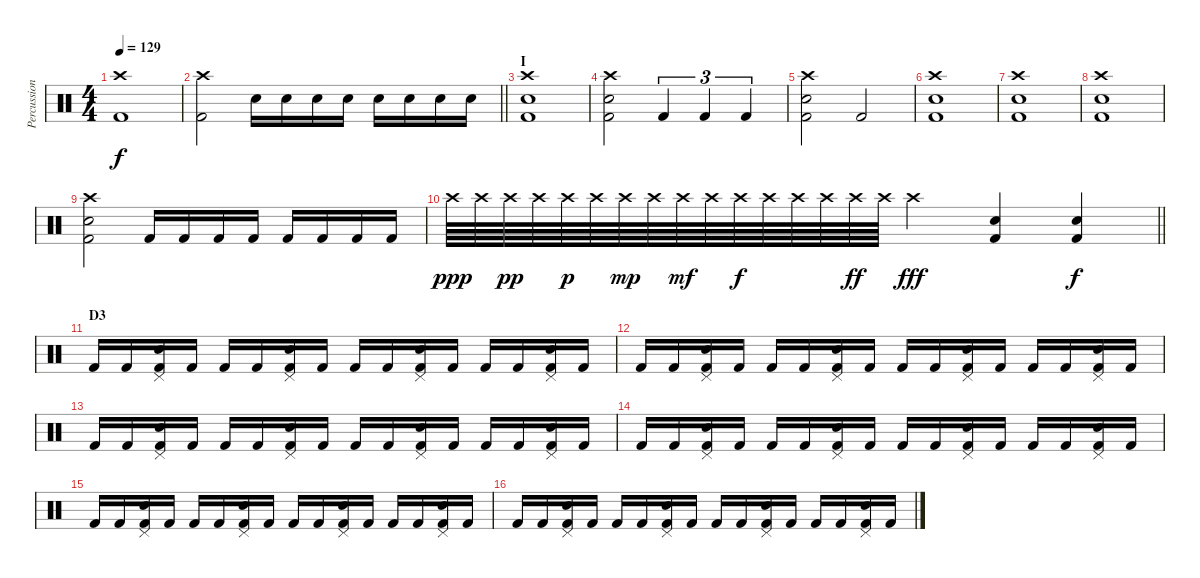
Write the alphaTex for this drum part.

\track ("Percussion" "Percussion") {instrument percussion}
\staff {score}
\articulation defaults
\ts (4 4)
\tempo 129
\clef neutral
\ks c
("Crash high (hit)" "Kick (hit) 2").1{dy f} |
\barLineRight lightlight
("Crash high (hit)" "Kick (hit) 2").2 "Snare (hit) 2".16 "Snare (hit) 2".16 "Snare (hit) 2".16 "Snare (hit) 2".16 "Snare (hit) 2".16 "Snare (hit) 2".16 "Snare (hit) 2".16 "Snare (hit) 2".16 |
\section ("" "I")
("Crash high (hit)" "Snare (hit) 2" "Kick (hit) 2").1 |
("Crash high (hit)" "Snare (hit) 2" "Kick (hit) 2").2 "Kick (hit) 2".4{tu (3 2)} "Kick (hit) 2".4{tu (3 2)} "Kick (hit) 2".4{tu (3 2)} |
("Crash high (hit)" "Snare (hit) 2" "Kick (hit) 2").2 "Kick (hit) 2".2 |
("Crash high (hit)" "Snare (hit) 2" "Kick (hit) 2").1 |
("Crash high (hit)" "Snare (hit) 2" "Kick (hit) 2").1 |
("Crash high (hit)" "Snare (hit) 2" "Kick (hit) 2").1 |
("Crash high (hit)" "Snare (hit) 2" "Kick (hit) 2").2 "Kick (hit) 2".16 "Kick (hit) 2".16 "Kick (hit) 2".16 "Kick (hit) 2".16 "Kick (hit) 2".16 "Kick (hit) 2".16 "Kick (hit) 2".16 "Kick (hit) 2".16 |
\barLineRight lightlight "Crash high (hit)".64{dy ppp} "Crash high (hit)".64 "Crash high (hit)".64{dy pp} "Crash high (hit)".64 "Crash high (hit)".64{dy p} "Crash high (hit)".64 "Crash high (hit)".64{dy mp} "Crash high (hit)".64 "Crash high (hit)".64{dy mf} "Crash high (hit)".64 "Crash high (hit)".64{dy f} "Crash high (hit)".64 "Crash high (hit)".64 "Crash high (hit)".64 "Crash high (hit)".64{dy ff} "Crash high (hit)".64 "Crash high (hit)".4{dy fff}
("Snare (hit) 2" "Kick (hit) 2").4 ("Snare (hit) 2" "Kick (hit) 2").4{dy f} |
\section ("" "D3")
"Kick (hit) 2".16 "Kick (hit) 2".16 ("Pedal Hi-Hat (hit)" "Snare (hit) 2" "Kick (hit) 2").16 "Kick (hit) 2".16 "Kick (hit) 2".16 "Kick (hit) 2".16 ("Pedal Hi-Hat (hit)" "Snare (hit) 2" "Kick (hit) 2").16 "Kick (hit) 2".16 "Kick (hit) 2".16 "Kick (hit) 2".16 ("Pedal Hi-Hat (hit)" "Snare (hit) 2" "Kick (hit) 2").16 "Kick (hit) 2".16 "Kick (hit) 2".16 "Kick (hit) 2".16 ("Pedal Hi-Hat (hit)" "Snare (hit) 2" "Kick (hit) 2").16 "Kick (hit) 2".16 |
"Kick (hit) 2".16 "Kick (hit) 2".16 ("Pedal Hi-Hat (hit)" "Snare (hit) 2" "Kick (hit) 2").16 "Kick (hit) 2".16 "Kick (hit) 2".16 "Kick (hit) 2".16 ("Pedal Hi-Hat (hit)" "Snare (hit) 2" "Kick (hit) 2").16 "Kick (hit) 2".16 "Kick (hit) 2".16 "Kick (hit) 2".16 ("Pedal Hi-Hat (hit)" "Snare (hit) 2" "Kick (hit) 2").16 "Kick (hit) 2".16 "Kick (hit) 2".16 "Kick (hit) 2".16 ("Pedal Hi-Hat (hit)" "Snare (hit) 2" "Kick (hit) 2").16 "Kick (hit) 2".16 |
"Kick (hit) 2".16 "Kick (hit) 2".16 ("Pedal Hi-Hat (hit)" "Snare (hit) 2" "Kick (hit) 2").16 "Kick (hit) 2".16 "Kick (hit) 2".16 "Kick (hit) 2".16 ("Pedal Hi-Hat (hit)" "Snare (hit) 2" "Kick (hit) 2").16 "Kick (hit) 2".16 "Kick (hit) 2".16 "Kick (hit) 2".16 ("Pedal Hi-Hat (hit)" "Snare (hit) 2" "Kick (hit) 2").16 "Kick (hit) 2".16 "Kick (hit) 2".16 "Kick (hit) 2".16 ("Pedal Hi-Hat (hit)" "Snare (hit) 2" "Kick (hit) 2").16 "Kick (hit) 2".16 |
"Kick (hit) 2".16 "Kick (hit) 2".16 ("Pedal Hi-Hat (hit)" "Snare (hit) 2" "Kick (hit) 2").16 "Kick (hit) 2".16 "Kick (hit) 2".16 "Kick (hit) 2".16 ("Pedal Hi-Hat (hit)" "Snare (hit) 2" "Kick (hit) 2").16 "Kick (hit) 2".16 "Kick (hit) 2".16 "Kick (hit) 2".16 ("Pedal Hi-Hat (hit)" "Snare (hit) 2" "Kick (hit) 2").16 "Kick (hit) 2".16 "Kick (hit) 2".16 "Kick (hit) 2".16 ("Pedal Hi-Hat (hit)" "Snare (hit) 2" "Kick (hit) 2").16 "Kick (hit) 2".16 |
"Kick (hit) 2".16 "Kick (hit) 2".16 ("Pedal Hi-Hat (hit)" "Snare (hit) 2" "Kick (hit) 2").16 "Kick (hit) 2".16 "Kick (hit) 2".16 "Kick (hit) 2".16 ("Pedal Hi-Hat (hit)" "Snare (hit) 2" "Kick (hit) 2").16 "Kick (hit) 2".16 "Kick (hit) 2".16 "Kick (hit) 2".16 ("Pedal Hi-Hat (hit)" "Snare (hit) 2" "Kick (hit) 2").16 "Kick (hit) 2".16 "Kick (hit) 2".16 "Kick (hit) 2".16 ("Pedal Hi-Hat (hit)" "Snare (hit) 2" "Kick (hit) 2").16 "Kick (hit) 2".16 |
"Kick (hit) 2".16 "Kick (hit) 2".16 ("Pedal Hi-Hat (hit)" "Snare (hit) 2" "Kick (hit) 2").16 "Kick (hit) 2".16 "Kick (hit) 2".16 "Kick (hit) 2".16 ("Pedal Hi-Hat (hit)" "Snare (hit) 2" "Kick (hit) 2").16 "Kick (hit) 2".16 "Kick (hit) 2".16 "Kick (hit) 2".16 ("Pedal Hi-Hat (hit)" "Snare (hit) 2" "Kick (hit) 2").16 "Kick (hit) 2".16 "Kick (hit) 2".16 "Kick (hit) 2".16 ("Pedal Hi-Hat (hit)" "Snare (hit) 2" "Kick (hit) 2").16 "Kick (hit) 2".16
